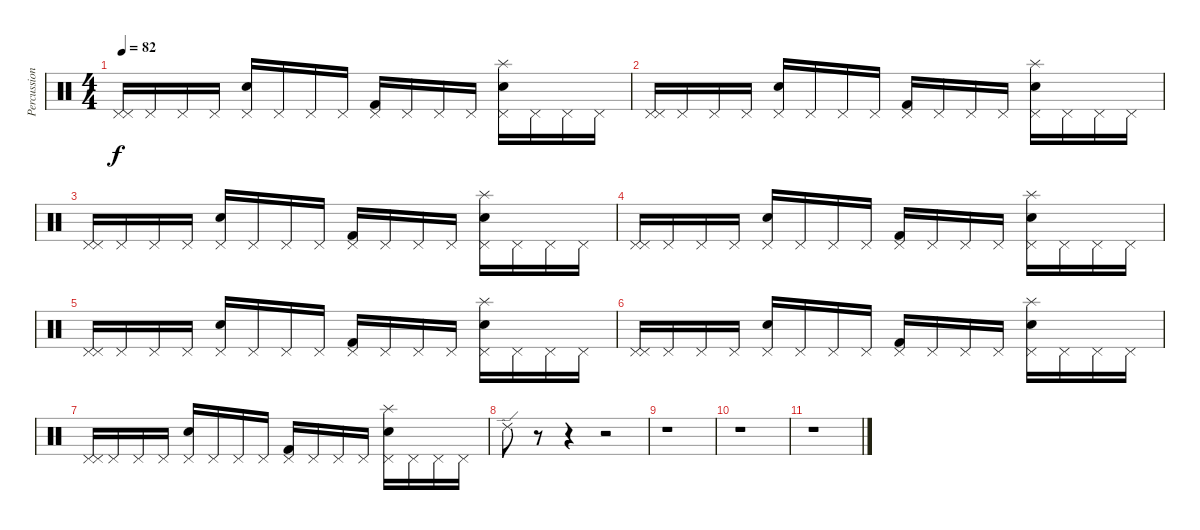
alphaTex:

\track ("Percussion" "Percussion") {instrument percussion}
\staff {score}
\articulation defaults
\ts (4 4)
\tempo 82
\clef neutral
\ks c
("Pedal Hi-Hat (hit)" "Pedal Hi-Hat (hit)").16{dy f} "Pedal Hi-Hat (hit)".16 "Pedal Hi-Hat (hit)".16 "Pedal Hi-Hat (hit)".16 ("Electric Snare (hit)" "Pedal Hi-Hat (hit)").16 "Pedal Hi-Hat (hit)".16 "Pedal Hi-Hat (hit)".16 "Pedal Hi-Hat (hit)".16 ("Kick (hit) 2" "Pedal Hi-Hat (hit)").16 "Pedal Hi-Hat (hit)".16 "Pedal Hi-Hat (hit)".16 "Pedal Hi-Hat (hit)".16 ("Splash (hit)" "Electric Snare (hit)" "Pedal Hi-Hat (hit)").16 "Pedal Hi-Hat (hit)".16 "Pedal Hi-Hat (hit)".16 "Pedal Hi-Hat (hit)".16 |
("Pedal Hi-Hat (hit)" "Pedal Hi-Hat (hit)").16 "Pedal Hi-Hat (hit)".16 "Pedal Hi-Hat (hit)".16 "Pedal Hi-Hat (hit)".16 ("Electric Snare (hit)" "Pedal Hi-Hat (hit)").16 "Pedal Hi-Hat (hit)".16 "Pedal Hi-Hat (hit)".16 "Pedal Hi-Hat (hit)".16 ("Kick (hit) 2" "Pedal Hi-Hat (hit)").16 "Pedal Hi-Hat (hit)".16 "Pedal Hi-Hat (hit)".16 "Pedal Hi-Hat (hit)".16 ("Splash (hit)" "Electric Snare (hit)" "Pedal Hi-Hat (hit)").16 "Pedal Hi-Hat (hit)".16 "Pedal Hi-Hat (hit)".16 "Pedal Hi-Hat (hit)".16 |
("Pedal Hi-Hat (hit)" "Pedal Hi-Hat (hit)").16 "Pedal Hi-Hat (hit)".16 "Pedal Hi-Hat (hit)".16 "Pedal Hi-Hat (hit)".16 ("Electric Snare (hit)" "Pedal Hi-Hat (hit)").16 "Pedal Hi-Hat (hit)".16 "Pedal Hi-Hat (hit)".16 "Pedal Hi-Hat (hit)".16 ("Kick (hit) 2" "Pedal Hi-Hat (hit)").16 "Pedal Hi-Hat (hit)".16 "Pedal Hi-Hat (hit)".16 "Pedal Hi-Hat (hit)".16 ("Splash (hit)" "Electric Snare (hit)" "Pedal Hi-Hat (hit)").16 "Pedal Hi-Hat (hit)".16 "Pedal Hi-Hat (hit)".16 "Pedal Hi-Hat (hit)".16 |
("Pedal Hi-Hat (hit)" "Pedal Hi-Hat (hit)").16 "Pedal Hi-Hat (hit)".16 "Pedal Hi-Hat (hit)".16 "Pedal Hi-Hat (hit)".16 ("Electric Snare (hit)" "Pedal Hi-Hat (hit)").16 "Pedal Hi-Hat (hit)".16 "Pedal Hi-Hat (hit)".16 "Pedal Hi-Hat (hit)".16 ("Kick (hit) 2" "Pedal Hi-Hat (hit)").16 "Pedal Hi-Hat (hit)".16 "Pedal Hi-Hat (hit)".16 "Pedal Hi-Hat (hit)".16 ("Splash (hit)" "Electric Snare (hit)" "Pedal Hi-Hat (hit)").16 "Pedal Hi-Hat (hit)".16 "Pedal Hi-Hat (hit)".16 "Pedal Hi-Hat (hit)".16 |
("Pedal Hi-Hat (hit)" "Pedal Hi-Hat (hit)").16 "Pedal Hi-Hat (hit)".16 "Pedal Hi-Hat (hit)".16 "Pedal Hi-Hat (hit)".16 ("Electric Snare (hit)" "Pedal Hi-Hat (hit)").16 "Pedal Hi-Hat (hit)".16 "Pedal Hi-Hat (hit)".16 "Pedal Hi-Hat (hit)".16 ("Kick (hit) 2" "Pedal Hi-Hat (hit)").16 "Pedal Hi-Hat (hit)".16 "Pedal Hi-Hat (hit)".16 "Pedal Hi-Hat (hit)".16 ("Splash (hit)" "Electric Snare (hit)" "Pedal Hi-Hat (hit)").16 "Pedal Hi-Hat (hit)".16 "Pedal Hi-Hat (hit)".16 "Pedal Hi-Hat (hit)".16 |
("Pedal Hi-Hat (hit)" "Pedal Hi-Hat (hit)").16 "Pedal Hi-Hat (hit)".16 "Pedal Hi-Hat (hit)".16 "Pedal Hi-Hat (hit)".16 ("Electric Snare (hit)" "Pedal Hi-Hat (hit)").16 "Pedal Hi-Hat (hit)".16 "Pedal Hi-Hat (hit)".16 "Pedal Hi-Hat (hit)".16 ("Kick (hit) 2" "Pedal Hi-Hat (hit)").16 "Pedal Hi-Hat (hit)".16 "Pedal Hi-Hat (hit)".16 "Pedal Hi-Hat (hit)".16 ("Splash (hit)" "Electric Snare (hit)" "Pedal Hi-Hat (hit)").16 "Pedal Hi-Hat (hit)".16 "Pedal Hi-Hat (hit)".16 "Pedal Hi-Hat (hit)".16 |
("Pedal Hi-Hat (hit)" "Pedal Hi-Hat (hit)").16 "Pedal Hi-Hat (hit)".16 "Pedal Hi-Hat (hit)".16 "Pedal Hi-Hat (hit)".16 ("Electric Snare (hit)" "Pedal Hi-Hat (hit)").16 "Pedal Hi-Hat (hit)".16 "Pedal Hi-Hat (hit)".16 "Pedal Hi-Hat (hit)".16 ("Kick (hit) 2" "Pedal Hi-Hat (hit)").16 "Pedal Hi-Hat (hit)".16 "Pedal Hi-Hat (hit)".16 "Pedal Hi-Hat (hit)".16 ("Splash (hit)" "Electric Snare (hit)" "Pedal Hi-Hat (hit)").16 "Pedal Hi-Hat (hit)".16 "Pedal Hi-Hat (hit)".16 "Pedal Hi-Hat (hit)".16 |
"Ride (edge) 2".8 r.8 r.4 r.2 |
r.1 |
r.1 |
r.1
